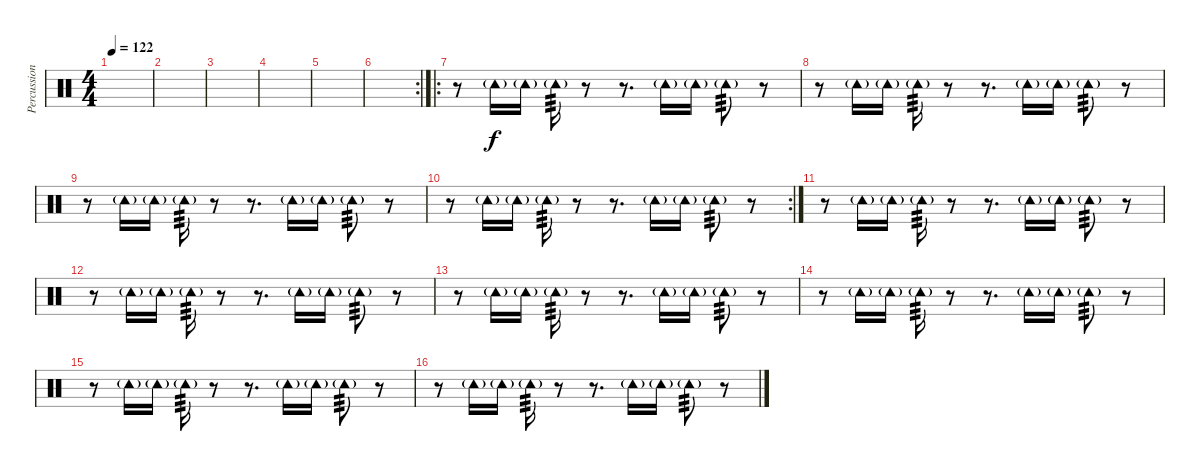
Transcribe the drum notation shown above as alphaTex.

\track ("Percussion" "Percussion") {instrument percussion}
\staff {score}
\articulation defaults
\ts (4 4)
\tempo 122
\clef neutral
\ks c
|
|
|
|
|
\rc 2
|
\ro
r.8 "Tambourine (hit)"{g}.16 "Tambourine (hit)"{g}.16 "Tambourine (hit)"{g}.16{tp 3} r.8 r.8{d} "Tambourine (hit)"{g}.16 "Tambourine (hit)"{g}.16 "Tambourine (hit)"{g}.8{tp 3} r.8 |
r.8 "Tambourine (hit)"{g}.16 "Tambourine (hit)"{g}.16 "Tambourine (hit)"{g}.16{tp 3} r.8 r.8{d} "Tambourine (hit)"{g}.16 "Tambourine (hit)"{g}.16 "Tambourine (hit)"{g}.8{tp 3} r.8 |
r.8 "Tambourine (hit)"{g}.16 "Tambourine (hit)"{g}.16 "Tambourine (hit)"{g}.16{tp 3} r.8 r.8{d} "Tambourine (hit)"{g}.16 "Tambourine (hit)"{g}.16 "Tambourine (hit)"{g}.8{tp 3} r.8 |
\rc 2
r.8 "Tambourine (hit)"{g}.16 "Tambourine (hit)"{g}.16 "Tambourine (hit)"{g}.16{tp 3} r.8 r.8{d} "Tambourine (hit)"{g}.16 "Tambourine (hit)"{g}.16 "Tambourine (hit)"{g}.8{tp 3} r.8 |
r.8 "Tambourine (hit)"{g}.16 "Tambourine (hit)"{g}.16 "Tambourine (hit)"{g}.16{tp 3} r.8 r.8{d} "Tambourine (hit)"{g}.16 "Tambourine (hit)"{g}.16 "Tambourine (hit)"{g}.8{tp 3} r.8 |
r.8 "Tambourine (hit)"{g}.16 "Tambourine (hit)"{g}.16 "Tambourine (hit)"{g}.16{tp 3} r.8 r.8{d} "Tambourine (hit)"{g}.16 "Tambourine (hit)"{g}.16 "Tambourine (hit)"{g}.8{tp 3} r.8 |
r.8 "Tambourine (hit)"{g}.16 "Tambourine (hit)"{g}.16 "Tambourine (hit)"{g}.16{tp 3} r.8 r.8{d} "Tambourine (hit)"{g}.16 "Tambourine (hit)"{g}.16 "Tambourine (hit)"{g}.8{tp 3} r.8 |
r.8 "Tambourine (hit)"{g}.16 "Tambourine (hit)"{g}.16 "Tambourine (hit)"{g}.16{tp 3} r.8 r.8{d} "Tambourine (hit)"{g}.16 "Tambourine (hit)"{g}.16 "Tambourine (hit)"{g}.8{tp 3} r.8 |
r.8 "Tambourine (hit)"{g}.16 "Tambourine (hit)"{g}.16 "Tambourine (hit)"{g}.16{tp 3} r.8 r.8{d} "Tambourine (hit)"{g}.16 "Tambourine (hit)"{g}.16 "Tambourine (hit)"{g}.8{tp 3} r.8 |
r.8 "Tambourine (hit)"{g}.16 "Tambourine (hit)"{g}.16 "Tambourine (hit)"{g}.16{tp 3} r.8 r.8{d} "Tambourine (hit)"{g}.16 "Tambourine (hit)"{g}.16 "Tambourine (hit)"{g}.8{tp 3} r.8
